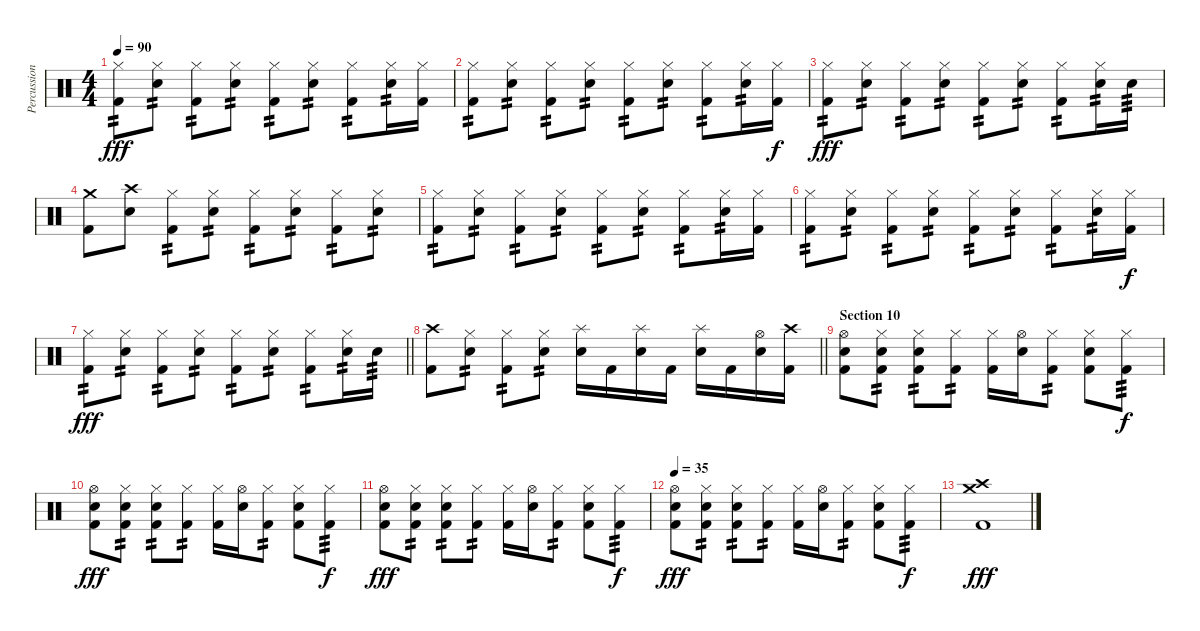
\track ("Percussion" "Percussion") {instrument percussion}
\staff {score}
\articulation defaults
\ts (4 4)
\tempo 90
\clef neutral
\ks c
("Hi-Hat (closed)" "Kick (hit) 2").8{tp 2 dy fff} ("Hi-Hat (closed)" "Electric Snare (hit)").8{tp 2} ("Hi-Hat (closed)" "Kick (hit) 2").8{tp 2} ("Hi-Hat (closed)" "Electric Snare (hit)").8{tp 2} ("Hi-Hat (closed)" "Kick (hit) 2").8{tp 2} ("Hi-Hat (closed)" "Electric Snare (hit)").8{tp 2} ("Hi-Hat (closed)" "Kick (hit) 2").8{tp 2} ("Hi-Hat (closed)" "Electric Snare (hit)").16{tp 2} ("Hi-Hat (closed)" "Kick (hit) 2").16 |
("Hi-Hat (closed)" "Kick (hit) 2").8{tp 2} ("Hi-Hat (closed)" "Electric Snare (hit)").8{tp 2} ("Hi-Hat (closed)" "Kick (hit) 2").8{tp 2} ("Hi-Hat (closed)" "Electric Snare (hit)").8{tp 2} ("Hi-Hat (closed)" "Kick (hit) 2").8{tp 2} ("Hi-Hat (closed)" "Electric Snare (hit)").8{tp 2} ("Hi-Hat (closed)" "Kick (hit) 2").8{tp 2} ("Hi-Hat (closed)" "Electric Snare (hit)").16{tp 2} ("Hi-Hat (closed)" "Kick (hit) 2").16{dy f} |
("Hi-Hat (closed)" "Kick (hit) 2").8{tp 2 dy fff} ("Hi-Hat (closed)" "Electric Snare (hit)").8{tp 2} ("Hi-Hat (closed)" "Kick (hit) 2").8{tp 2} ("Hi-Hat (closed)" "Electric Snare (hit)").8{tp 2} ("Hi-Hat (closed)" "Kick (hit) 2").8{tp 2} ("Hi-Hat (closed)" "Electric Snare (hit)").8{tp 2} ("Hi-Hat (closed)" "Kick (hit) 2").8{tp 2} ("Hi-Hat (closed)" "Electric Snare (hit)").16{tp 2} "Electric Snare (hit)".16{tp 3} |
("Crash medium (hit)" "Kick (hit) 2").8 ("Crash high (hit)" "Electric Snare (hit)").8 ("Hi-Hat (closed)" "Kick (hit) 2").8{tp 2} ("Hi-Hat (closed)" "Electric Snare (hit)").8{tp 2} ("Hi-Hat (closed)" "Kick (hit) 2").8{tp 2} ("Hi-Hat (closed)" "Electric Snare (hit)").8{tp 2} ("Hi-Hat (closed)" "Kick (hit) 2").8{tp 2} ("Hi-Hat (closed)" "Electric Snare (hit)").8{tp 2} |
("Hi-Hat (closed)" "Kick (hit) 2").8{tp 2} ("Hi-Hat (closed)" "Electric Snare (hit)").8{tp 2} ("Hi-Hat (closed)" "Kick (hit) 2").8{tp 2} ("Hi-Hat (closed)" "Electric Snare (hit)").8{tp 2} ("Hi-Hat (closed)" "Kick (hit) 2").8{tp 2} ("Hi-Hat (closed)" "Electric Snare (hit)").8{tp 2} ("Hi-Hat (closed)" "Kick (hit) 2").8{tp 2} ("Hi-Hat (closed)" "Electric Snare (hit)").16{tp 2} ("Hi-Hat (closed)" "Kick (hit) 2").16 |
("Hi-Hat (closed)" "Kick (hit) 2").8{tp 2} ("Hi-Hat (closed)" "Electric Snare (hit)").8{tp 2} ("Hi-Hat (closed)" "Kick (hit) 2").8{tp 2} ("Hi-Hat (closed)" "Electric Snare (hit)").8{tp 2} ("Hi-Hat (closed)" "Kick (hit) 2").8{tp 2} ("Hi-Hat (closed)" "Electric Snare (hit)").8{tp 2} ("Hi-Hat (closed)" "Kick (hit) 2").8{tp 2} ("Hi-Hat (closed)" "Electric Snare (hit)").16{tp 2} ("Hi-Hat (closed)" "Kick (hit) 2").16{dy f} |
\barLineRight lightlight
("Hi-Hat (closed)" "Kick (hit) 2").8{tp 2 dy fff} ("Hi-Hat (closed)" "Electric Snare (hit)").8{tp 2} ("Hi-Hat (closed)" "Kick (hit) 2").8{tp 2} ("Hi-Hat (closed)" "Electric Snare (hit)").8{tp 2} ("Hi-Hat (closed)" "Kick (hit) 2").8{tp 2} ("Hi-Hat (closed)" "Electric Snare (hit)").8{tp 2} ("Hi-Hat (closed)" "Kick (hit) 2").8{tp 2} ("Hi-Hat (closed)" "Electric Snare (hit)").16{tp 2} "Electric Snare (hit)".16{tp 3} |
\barLineRight lightlight
("Crash high (hit)" "Kick (hit) 2").8 ("Hi-Hat (closed)" "Electric Snare (hit)").8{tp 2} ("Hi-Hat (closed)" "Kick (hit) 2").8{tp 2} ("Hi-Hat (closed)" "Electric Snare (hit)").8{tp 2} ("Splash (hit)" "Electric Snare (hit)").16 "Kick (hit) 2".16 ("Splash (hit)" "Electric Snare (hit)").16 "Kick (hit) 2".16 ("Splash (hit)" "Electric Snare (hit)").16 "Kick (hit) 2".16 ("Hi-Hat (open)" "Electric Snare (hit)").16 ("Crash high (hit)" "Kick (hit) 2").16 |
\section ("" "Section 10")
("Hi-Hat (open)" "Electric Snare (hit)" "Kick (hit) 2").8 ("Hi-Hat (closed)" "Electric Snare (hit)" "Kick (hit) 2").8{tp 2} ("Hi-Hat (closed)" "Electric Snare (hit)" "Kick (hit) 2").8{tp 2} ("Hi-Hat (closed)" "Kick (hit) 2").8{tp 2} ("Hi-Hat (closed)" "Kick (hit) 2").16 ("Hi-Hat (open)" "Electric Snare (hit)").16 ("Hi-Hat (closed)" "Kick (hit) 2").8{tp 2} ("Hi-Hat (closed)" "Electric Snare (hit)" "Kick (hit) 2").8 ("Hi-Hat (closed)" "Kick (hit) 2").8{tp 3 dy f} |
("Hi-Hat (open)" "Electric Snare (hit)" "Kick (hit) 2").8{dy fff} ("Hi-Hat (closed)" "Electric Snare (hit)" "Kick (hit) 2").8{tp 2} ("Hi-Hat (closed)" "Electric Snare (hit)" "Kick (hit) 2").8{tp 2} ("Hi-Hat (closed)" "Kick (hit) 2").8{tp 2} ("Hi-Hat (closed)" "Kick (hit) 2").16 ("Hi-Hat (open)" "Electric Snare (hit)").16 ("Hi-Hat (closed)" "Kick (hit) 2").8{tp 2} ("Hi-Hat (closed)" "Electric Snare (hit)" "Kick (hit) 2").8 ("Hi-Hat (closed)" "Kick (hit) 2").8{tp 3 dy f} |
("Hi-Hat (open)" "Electric Snare (hit)" "Kick (hit) 2").8{dy fff} ("Hi-Hat (closed)" "Electric Snare (hit)" "Kick (hit) 2").8{tp 2} ("Hi-Hat (closed)" "Electric Snare (hit)" "Kick (hit) 2").8{tp 2} ("Hi-Hat (closed)" "Kick (hit) 2").8{tp 2} ("Hi-Hat (closed)" "Kick (hit) 2").16 ("Hi-Hat (open)" "Electric Snare (hit)").16 ("Hi-Hat (closed)" "Kick (hit) 2").8{tp 2} ("Hi-Hat (closed)" "Electric Snare (hit)" "Kick (hit) 2").8 ("Hi-Hat (closed)" "Kick (hit) 2").8{tp 3 dy f} |
\tempo 35
("Hi-Hat (open)" "Electric Snare (hit)" "Kick (hit) 2").8{dy fff} ("Hi-Hat (closed)" "Electric Snare (hit)" "Kick (hit) 2").8{tp 2} ("Hi-Hat (closed)" "Electric Snare (hit)" "Kick (hit) 2").8{tp 2} ("Hi-Hat (closed)" "Kick (hit) 2").8{tp 2} ("Hi-Hat (closed)" "Kick (hit) 2").16 ("Hi-Hat (open)" "Electric Snare (hit)").16 ("Hi-Hat (closed)" "Kick (hit) 2").8{tp 2} ("Hi-Hat (closed)" "Electric Snare (hit)" "Kick (hit) 2").8 ("Hi-Hat (closed)" "Kick (hit) 2").8{tp 3 dy f} |
("Crash high (hit)" "Crash medium (hit)" "Kick (hit) 2").1{dy fff}
